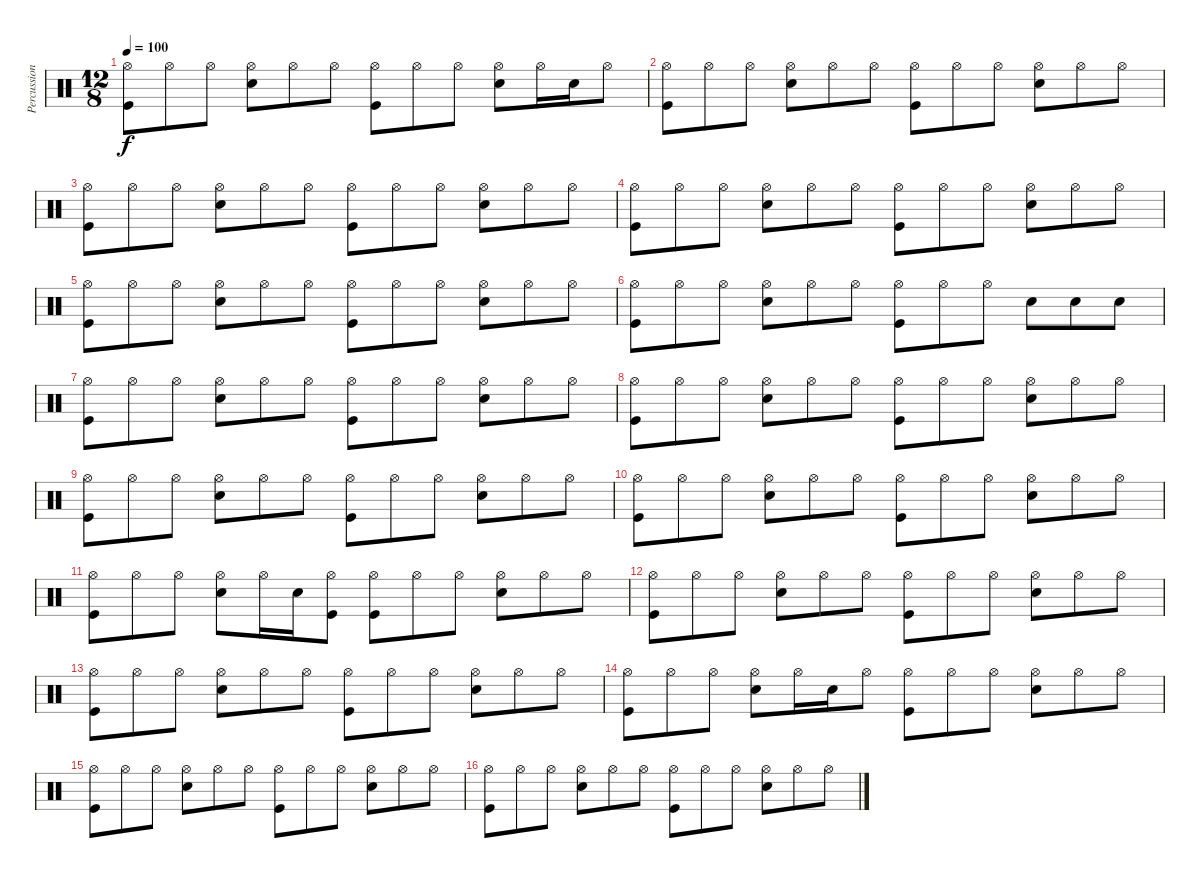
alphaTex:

\track ("Percussion" "Percussion") {instrument percussion}
\staff {score}
\articulation defaults
\ts (12 8)
\tempo 100
\clef neutral
\ks c
("Hi-Hat (open)" "Kick (hit)").8{dy f} "Hi-Hat (open)".8 "Hi-Hat (open)".8 ("Hi-Hat (open)" "Snare (hit) 2").8 "Hi-Hat (open)".8 "Hi-Hat (open)".8 ("Hi-Hat (open)" "Kick (hit)").8 "Hi-Hat (open)".8 "Hi-Hat (open)".8 ("Hi-Hat (open)" "Snare (hit) 2").8 "Hi-Hat (open)".16 "Snare (hit) 2".16 "Hi-Hat (open)".8 |
("Hi-Hat (open)" "Kick (hit)").8 "Hi-Hat (open)".8 "Hi-Hat (open)".8 ("Hi-Hat (open)" "Snare (hit) 2").8 "Hi-Hat (open)".8 "Hi-Hat (open)".8 ("Hi-Hat (open)" "Kick (hit)").8 "Hi-Hat (open)".8 "Hi-Hat (open)".8 ("Hi-Hat (open)" "Snare (hit) 2").8 "Hi-Hat (open)".8 "Hi-Hat (open)".8 |
("Hi-Hat (open)" "Kick (hit)").8 "Hi-Hat (open)".8 "Hi-Hat (open)".8 ("Hi-Hat (open)" "Snare (hit) 2").8 "Hi-Hat (open)".8 "Hi-Hat (open)".8 ("Hi-Hat (open)" "Kick (hit)").8 "Hi-Hat (open)".8 "Hi-Hat (open)".8 ("Hi-Hat (open)" "Snare (hit) 2").8 "Hi-Hat (open)".8 "Hi-Hat (open)".8 |
("Hi-Hat (open)" "Kick (hit)").8 "Hi-Hat (open)".8 "Hi-Hat (open)".8 ("Hi-Hat (open)" "Snare (hit) 2").8 "Hi-Hat (open)".8 "Hi-Hat (open)".8 ("Hi-Hat (open)" "Kick (hit)").8 "Hi-Hat (open)".8 "Hi-Hat (open)".8 ("Hi-Hat (open)" "Snare (hit) 2").8 "Hi-Hat (open)".8 "Hi-Hat (open)".8 |
("Hi-Hat (open)" "Kick (hit)").8 "Hi-Hat (open)".8 "Hi-Hat (open)".8 ("Hi-Hat (open)" "Snare (hit) 2").8 "Hi-Hat (open)".8 "Hi-Hat (open)".8 ("Hi-Hat (open)" "Kick (hit)").8 "Hi-Hat (open)".8 "Hi-Hat (open)".8 ("Hi-Hat (open)" "Snare (hit) 2").8 "Hi-Hat (open)".8 "Hi-Hat (open)".8 |
("Hi-Hat (open)" "Kick (hit)").8 "Hi-Hat (open)".8 "Hi-Hat (open)".8 ("Hi-Hat (open)" "Snare (hit) 2").8 "Hi-Hat (open)".8 "Hi-Hat (open)".8 ("Hi-Hat (open)" "Kick (hit)").8 "Hi-Hat (open)".8 "Hi-Hat (open)".8 "Snare (hit) 2".8 "Snare (hit) 2".8 "Snare (hit) 2".8 |
("Hi-Hat (open)" "Kick (hit)").8 "Hi-Hat (open)".8 "Hi-Hat (open)".8 ("Hi-Hat (open)" "Snare (hit) 2").8 "Hi-Hat (open)".8 "Hi-Hat (open)".8 ("Hi-Hat (open)" "Kick (hit)").8 "Hi-Hat (open)".8 "Hi-Hat (open)".8 ("Hi-Hat (open)" "Snare (hit) 2").8 "Hi-Hat (open)".8 "Hi-Hat (open)".8 |
("Hi-Hat (open)" "Kick (hit)").8 "Hi-Hat (open)".8 "Hi-Hat (open)".8 ("Hi-Hat (open)" "Snare (hit) 2").8 "Hi-Hat (open)".8 "Hi-Hat (open)".8 ("Hi-Hat (open)" "Kick (hit)").8 "Hi-Hat (open)".8 "Hi-Hat (open)".8 ("Hi-Hat (open)" "Snare (hit) 2").8 "Hi-Hat (open)".8 "Hi-Hat (open)".8 |
("Hi-Hat (open)" "Kick (hit)").8 "Hi-Hat (open)".8 "Hi-Hat (open)".8 ("Hi-Hat (open)" "Snare (hit) 2").8 "Hi-Hat (open)".8 "Hi-Hat (open)".8 ("Hi-Hat (open)" "Kick (hit)").8 "Hi-Hat (open)".8 "Hi-Hat (open)".8 ("Hi-Hat (open)" "Snare (hit) 2").8 "Hi-Hat (open)".8 "Hi-Hat (open)".8 |
("Hi-Hat (open)" "Kick (hit)").8 "Hi-Hat (open)".8 "Hi-Hat (open)".8 ("Hi-Hat (open)" "Snare (hit) 2").8 "Hi-Hat (open)".8 "Hi-Hat (open)".8 ("Hi-Hat (open)" "Kick (hit)").8 "Hi-Hat (open)".8 "Hi-Hat (open)".8 ("Hi-Hat (open)" "Snare (hit) 2").8 "Hi-Hat (open)".8 "Hi-Hat (open)".8 |
("Hi-Hat (open)" "Kick (hit)").8 "Hi-Hat (open)".8 "Hi-Hat (open)".8 ("Hi-Hat (open)" "Snare (hit) 2").8 "Hi-Hat (open)".16 "Snare (hit) 2".16 ("Hi-Hat (open)" "Kick (hit)").8 ("Hi-Hat (open)" "Kick (hit)").8 "Hi-Hat (open)".8 "Hi-Hat (open)".8 ("Hi-Hat (open)" "Snare (hit) 2").8 "Hi-Hat (open)".8 "Hi-Hat (open)".8 |
("Hi-Hat (open)" "Kick (hit)").8 "Hi-Hat (open)".8 "Hi-Hat (open)".8 ("Hi-Hat (open)" "Snare (hit) 2").8 "Hi-Hat (open)".8 "Hi-Hat (open)".8 ("Hi-Hat (open)" "Kick (hit)").8 "Hi-Hat (open)".8 "Hi-Hat (open)".8 ("Hi-Hat (open)" "Snare (hit) 2").8 "Hi-Hat (open)".8 "Hi-Hat (open)".8 |
("Hi-Hat (open)" "Kick (hit)").8 "Hi-Hat (open)".8 "Hi-Hat (open)".8 ("Hi-Hat (open)" "Snare (hit) 2").8 "Hi-Hat (open)".8 "Hi-Hat (open)".8 ("Hi-Hat (open)" "Kick (hit)").8 "Hi-Hat (open)".8 "Hi-Hat (open)".8 ("Hi-Hat (open)" "Snare (hit) 2").8 "Hi-Hat (open)".8 "Hi-Hat (open)".8 |
("Hi-Hat (open)" "Kick (hit)").8 "Hi-Hat (open)".8 "Hi-Hat (open)".8 ("Hi-Hat (open)" "Snare (hit) 2").8 "Hi-Hat (open)".16 "Snare (hit) 2".16 "Hi-Hat (open)".8 ("Hi-Hat (open)" "Kick (hit)").8 "Hi-Hat (open)".8 "Hi-Hat (open)".8 ("Hi-Hat (open)" "Snare (hit) 2").8 "Hi-Hat (open)".8 "Hi-Hat (open)".8 |
("Hi-Hat (open)" "Kick (hit)").8 "Hi-Hat (open)".8 "Hi-Hat (open)".8 ("Hi-Hat (open)" "Snare (hit) 2").8 "Hi-Hat (open)".8 "Hi-Hat (open)".8 ("Hi-Hat (open)" "Kick (hit)").8 "Hi-Hat (open)".8 "Hi-Hat (open)".8 ("Hi-Hat (open)" "Snare (hit) 2").8 "Hi-Hat (open)".8 "Hi-Hat (open)".8 |
("Hi-Hat (open)" "Kick (hit)").8 "Hi-Hat (open)".8 "Hi-Hat (open)".8 ("Hi-Hat (open)" "Snare (hit) 2").8 "Hi-Hat (open)".8 "Hi-Hat (open)".8 ("Hi-Hat (open)" "Kick (hit)").8 "Hi-Hat (open)".8 "Hi-Hat (open)".8 ("Hi-Hat (open)" "Snare (hit) 2").8 "Hi-Hat (open)".8 "Hi-Hat (open)".8
